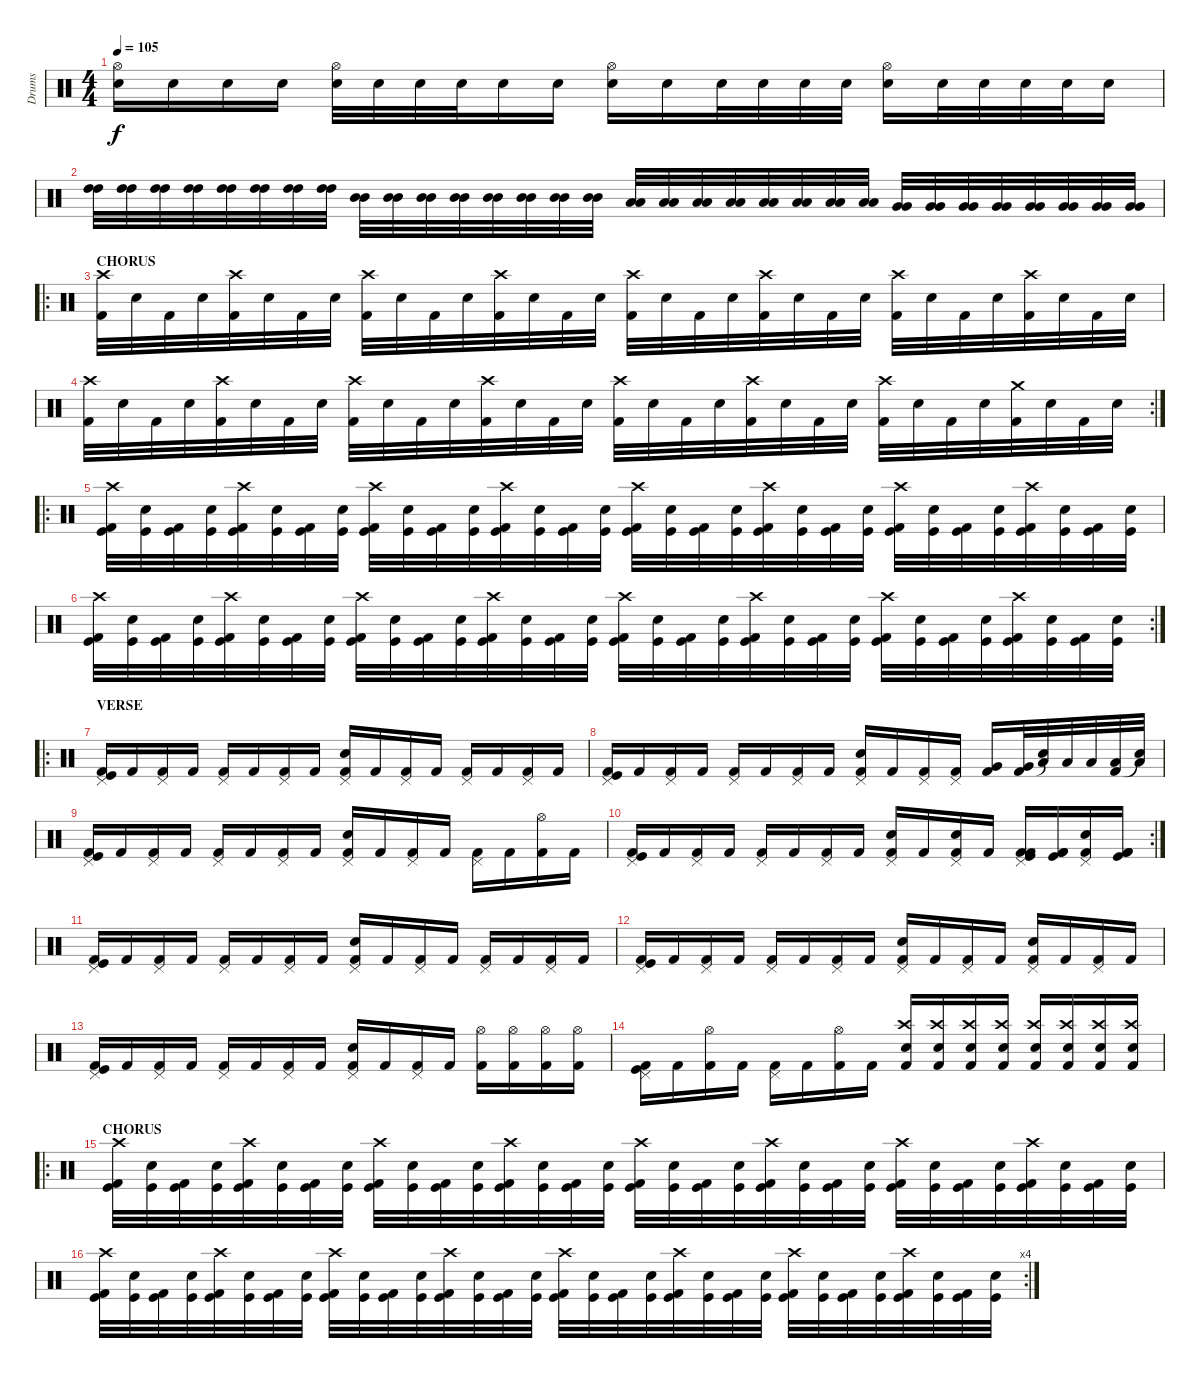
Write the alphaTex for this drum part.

\track ("Drums" "Drums") {instrument percussion}
\staff {score}
\articulation defaults
\ts (4 4)
\tempo 105
\clef neutral
\ks c
("Hi-Hat (open)" "Electric Snare (hit)").16{dy f} "Electric Snare (hit)".16 "Electric Snare (hit)".16 "Electric Snare (hit)".16 ("Hi-Hat (open)" "Electric Snare (hit)").32 "Electric Snare (hit)".32 "Electric Snare (hit)".32 "Electric Snare (hit)".32 "Electric Snare (hit)".16 "Electric Snare (hit)".16 ("Hi-Hat (open)" "Electric Snare (hit)").16 "Electric Snare (hit)".16 "Electric Snare (hit)".32 "Electric Snare (hit)".32 "Electric Snare (hit)".32 "Electric Snare (hit)".32 ("Hi-Hat (open)" "Electric Snare (hit)").16 "Electric Snare (hit)".32 "Electric Snare (hit)".32 "Electric Snare (hit)".32 "Electric Snare (hit)".32 "Electric Snare (hit)".16 |
("High Tom (hit)" "High Tom (hit)").32 ("High Tom (hit)" "High Tom (hit)").32 ("High Tom (hit)" "High Tom (hit)").32 ("High Tom (hit)" "High Tom (hit)").32 ("High Tom (hit)" "High Tom (hit)").32 ("High Tom (hit)" "High Tom (hit)").32 ("High Tom (hit)" "High Tom (hit)").32 ("High Tom (hit)" "High Tom (hit)").32 ("Mid Tom (hit)" "Mid Tom (hit)").32 ("Mid Tom (hit)" "Mid Tom (hit)").32 ("Mid Tom (hit)" "Mid Tom (hit)").32 ("Mid Tom (hit)" "Mid Tom (hit)").32 ("Mid Tom (hit)" "Mid Tom (hit)").32 ("Mid Tom (hit)" "Mid Tom (hit)").32 ("Mid Tom (hit)" "Mid Tom (hit)").32 ("Mid Tom (hit)" "Mid Tom (hit)").32 ("Low Tom (hit)" "Low Tom (hit)").32 ("Low Tom (hit)" "Low Tom (hit)").32 ("Low Tom (hit)" "Low Tom (hit)").32 ("Low Tom (hit)" "Low Tom (hit)").32 ("Low Tom (hit)" "Low Tom (hit)").32 ("Low Tom (hit)" "Low Tom (hit)").32 ("Low Tom (hit)" "Low Tom (hit)").32 ("Low Tom (hit)" "Low Tom (hit)").32 ("Very Low Tom (hit)" "Very Low Tom (hit)").32 ("Very Low Tom (hit)" "Very Low Tom (hit)").32 ("Very Low Tom (hit)" "Very Low Tom (hit)").32 ("Very Low Tom (hit)" "Very Low Tom (hit)").32 ("Very Low Tom (hit)" "Very Low Tom (hit)").32 ("Very Low Tom (hit)" "Very Low Tom (hit)").32 ("Very Low Tom (hit)" "Very Low Tom (hit)").32 ("Very Low Tom (hit)" "Very Low Tom (hit)").32 |
\ro
\section ("" "CHORUS")
("Crash high (hit)" "Kick (hit) 2").32 "Electric Snare (hit)".32 "Kick (hit) 2".32 "Electric Snare (hit)".32 ("Crash high (hit)" "Kick (hit) 2").32 "Electric Snare (hit)".32 "Kick (hit) 2".32 "Electric Snare (hit)".32 ("Crash high (hit)" "Kick (hit) 2").32 "Electric Snare (hit)".32 "Kick (hit) 2".32 "Electric Snare (hit)".32 ("Crash high (hit)" "Kick (hit) 2").32 "Electric Snare (hit)".32 "Kick (hit) 2".32 "Electric Snare (hit)".32 ("Crash high (hit)" "Kick (hit) 2").32 "Electric Snare (hit)".32 "Kick (hit) 2".32 "Electric Snare (hit)".32 ("Crash high (hit)" "Kick (hit) 2").32 "Electric Snare (hit)".32 "Kick (hit) 2".32 "Electric Snare (hit)".32 ("Crash high (hit)" "Kick (hit) 2").32 "Electric Snare (hit)".32 "Kick (hit) 2".32 "Electric Snare (hit)".32 ("Crash high (hit)" "Kick (hit) 2").32 "Electric Snare (hit)".32 "Kick (hit) 2".32 "Electric Snare (hit)".32 |
\rc 2
("Crash high (hit)" "Kick (hit) 2").32 "Electric Snare (hit)".32 "Kick (hit) 2".32 "Electric Snare (hit)".32 ("Crash high (hit)" "Kick (hit) 2").32 "Electric Snare (hit)".32 "Kick (hit) 2".32 "Electric Snare (hit)".32 ("Crash high (hit)" "Kick (hit) 2").32 "Electric Snare (hit)".32 "Kick (hit) 2".32 "Electric Snare (hit)".32 ("Crash high (hit)" "Kick (hit) 2").32 "Electric Snare (hit)".32 "Kick (hit) 2".32 "Electric Snare (hit)".32 ("Crash high (hit)" "Kick (hit) 2").32 "Electric Snare (hit)".32 "Kick (hit) 2".32 "Electric Snare (hit)".32 ("Crash high (hit)" "Kick (hit) 2").32 "Electric Snare (hit)".32 "Kick (hit) 2".32 "Electric Snare (hit)".32 ("Crash high (hit)" "Kick (hit) 2").32 "Electric Snare (hit)".32 "Kick (hit) 2".32 "Electric Snare (hit)".32 ("Crash medium (hit)" "Kick (hit) 2").32 "Electric Snare (hit)".32 "Kick (hit) 2".32 "Electric Snare (hit)".32 |
\ro
("Crash high (hit)" "Kick (hit)" "Kick (hit) 2").32 ("Kick (hit)" "Electric Snare (hit)").32 ("Kick (hit)" "Kick (hit) 2").32 ("Kick (hit)" "Electric Snare (hit)").32 ("Crash high (hit)" "Kick (hit)" "Kick (hit) 2").32 ("Kick (hit)" "Electric Snare (hit)").32 ("Kick (hit)" "Kick (hit) 2").32 ("Kick (hit)" "Electric Snare (hit)").32 ("Crash high (hit)" "Kick (hit)" "Kick (hit) 2").32 ("Kick (hit)" "Electric Snare (hit)").32 ("Kick (hit)" "Kick (hit) 2").32 ("Kick (hit)" "Electric Snare (hit)").32 ("Crash high (hit)" "Kick (hit)" "Kick (hit) 2").32 ("Kick (hit)" "Electric Snare (hit)").32 ("Kick (hit)" "Kick (hit) 2").32 ("Kick (hit)" "Electric Snare (hit)").32 ("Crash high (hit)" "Kick (hit)" "Kick (hit) 2").32 ("Kick (hit)" "Electric Snare (hit)").32 ("Kick (hit)" "Kick (hit) 2").32 ("Kick (hit)" "Electric Snare (hit)").32 ("Crash high (hit)" "Kick (hit)" "Kick (hit) 2").32 ("Kick (hit)" "Electric Snare (hit)").32 ("Kick (hit)" "Kick (hit) 2").32 ("Kick (hit)" "Electric Snare (hit)").32 ("Crash high (hit)" "Kick (hit)" "Kick (hit) 2").32 ("Kick (hit)" "Electric Snare (hit)").32 ("Kick (hit)" "Kick (hit) 2").32 ("Kick (hit)" "Electric Snare (hit)").32 ("Crash high (hit)" "Kick (hit)" "Kick (hit) 2").32 ("Kick (hit)" "Electric Snare (hit)").32 ("Kick (hit)" "Kick (hit) 2").32 ("Kick (hit)" "Electric Snare (hit)").32 |
\rc 2
("Crash high (hit)" "Kick (hit)" "Kick (hit) 2").32 ("Kick (hit)" "Electric Snare (hit)").32 ("Kick (hit)" "Kick (hit) 2").32 ("Kick (hit)" "Electric Snare (hit)").32 ("Crash high (hit)" "Kick (hit)" "Kick (hit) 2").32 ("Kick (hit)" "Electric Snare (hit)").32 ("Kick (hit)" "Kick (hit) 2").32 ("Kick (hit)" "Electric Snare (hit)").32 ("Crash high (hit)" "Kick (hit)" "Kick (hit) 2").32 ("Kick (hit)" "Electric Snare (hit)").32 ("Kick (hit)" "Kick (hit) 2").32 ("Kick (hit)" "Electric Snare (hit)").32 ("Crash high (hit)" "Kick (hit)" "Kick (hit) 2").32 ("Kick (hit)" "Electric Snare (hit)").32 ("Kick (hit)" "Kick (hit) 2").32 ("Kick (hit)" "Electric Snare (hit)").32 ("Crash high (hit)" "Kick (hit)" "Kick (hit) 2").32 ("Kick (hit)" "Electric Snare (hit)").32 ("Kick (hit)" "Kick (hit) 2").32 ("Kick (hit)" "Electric Snare (hit)").32 ("Crash high (hit)" "Kick (hit)" "Kick (hit) 2").32 ("Kick (hit)" "Electric Snare (hit)").32 ("Kick (hit)" "Kick (hit) 2").32 ("Kick (hit)" "Electric Snare (hit)").32 ("Crash high (hit)" "Kick (hit)" "Kick (hit) 2").32 ("Kick (hit)" "Electric Snare (hit)").32 ("Kick (hit)" "Kick (hit) 2").32 ("Kick (hit)" "Electric Snare (hit)").32 ("Crash high (hit)" "Kick (hit)" "Kick (hit) 2").32 ("Kick (hit)" "Electric Snare (hit)").32 ("Kick (hit)" "Kick (hit) 2").32 ("Kick (hit)" "Electric Snare (hit)").32 |
\ro
\section ("" "VERSE")
("Pedal Hi-Hat (hit)" "Kick (hit)" "Kick (hit) 2").16 "Kick (hit) 2".16 ("Pedal Hi-Hat (hit)" "Kick (hit) 2").16 "Kick (hit) 2".16 ("Pedal Hi-Hat (hit)" "Kick (hit) 2").16 "Kick (hit) 2".16 ("Pedal Hi-Hat (hit)" "Kick (hit) 2").16 "Kick (hit) 2".16 ("Pedal Hi-Hat (hit)" "Electric Snare (hit)" "Kick (hit) 2").16 "Kick (hit) 2".16 ("Pedal Hi-Hat (hit)" "Kick (hit) 2").16 "Kick (hit) 2".16 ("Pedal Hi-Hat (hit)" "Kick (hit) 2").16 "Kick (hit) 2".16 ("Pedal Hi-Hat (hit)" "Kick (hit) 2").16 "Kick (hit) 2".16 |
("Pedal Hi-Hat (hit)" "Kick (hit)" "Kick (hit) 2").16 "Kick (hit) 2".16 ("Pedal Hi-Hat (hit)" "Kick (hit) 2").16 "Kick (hit) 2".16 ("Pedal Hi-Hat (hit)" "Kick (hit) 2").16 "Kick (hit) 2".16 ("Pedal Hi-Hat (hit)" "Kick (hit) 2").16 "Kick (hit) 2".16 ("Pedal Hi-Hat (hit)" "Electric Snare (hit)" "Kick (hit) 2").16 "Kick (hit) 2".16 ("Pedal Hi-Hat (hit)" "Kick (hit) 2").16 ("Pedal Hi-Hat (hit)" "Kick (hit) 2").16 ("Kick (hit) 2" "Very Low Tom (hit)").16 ("Kick (hit) 2" "Very Low Tom (hit)").32 ("Snare (hit)"{t} "Low Floor Tom (hit)").32 "Low Floor Tom (hit)".32 "Low Floor Tom (hit)".32 ("Kick (hit) 2" "Low Floor Tom (hit)").32 ("Snare (hit)"{t} "Low Floor Tom (hit)").32 |
("Pedal Hi-Hat (hit)" "Kick (hit)" "Kick (hit) 2").16 "Kick (hit) 2".16 ("Pedal Hi-Hat (hit)" "Kick (hit) 2").16 "Kick (hit) 2".16 ("Pedal Hi-Hat (hit)" "Kick (hit) 2").16 "Kick (hit) 2".16 ("Pedal Hi-Hat (hit)" "Kick (hit) 2").16 "Kick (hit) 2".16 ("Pedal Hi-Hat (hit)" "Electric Snare (hit)" "Kick (hit) 2").16 "Kick (hit) 2".16 ("Pedal Hi-Hat (hit)" "Kick (hit) 2").16 "Kick (hit) 2".16 ("Pedal Hi-Hat (hit)" "Kick (hit) 2").16 "Kick (hit) 2".16 ("Hi-Hat (open)" "Kick (hit) 2").16 "Kick (hit) 2".16 |
\rc 2
("Pedal Hi-Hat (hit)" "Kick (hit)" "Kick (hit) 2").16 "Kick (hit) 2".16 ("Pedal Hi-Hat (hit)" "Kick (hit) 2").16 "Kick (hit) 2".16 ("Pedal Hi-Hat (hit)" "Kick (hit) 2").16 "Kick (hit) 2".16 ("Pedal Hi-Hat (hit)" "Kick (hit) 2").16 "Kick (hit) 2".16 ("Pedal Hi-Hat (hit)" "Electric Snare (hit)" "Kick (hit) 2").16 "Kick (hit) 2".16 ("Pedal Hi-Hat (hit)" "Electric Snare (hit)" "Kick (hit) 2").16 "Kick (hit) 2".16 ("Pedal Hi-Hat (hit)" "Kick (hit) 2" "Kick (hit)" "Kick (hit) 2").16 ("Kick (hit) 2" "Kick (hit)" "Kick (hit) 2").16 ("Pedal Hi-Hat (hit)" "Electric Snare (hit)" "Kick (hit) 2").16 ("Kick (hit) 2" "Kick (hit)" "Kick (hit) 2").16 |
("Pedal Hi-Hat (hit)" "Kick (hit)" "Kick (hit) 2").16 "Kick (hit) 2".16 ("Pedal Hi-Hat (hit)" "Kick (hit) 2").16 "Kick (hit) 2".16 ("Pedal Hi-Hat (hit)" "Kick (hit) 2").16 "Kick (hit) 2".16 ("Pedal Hi-Hat (hit)" "Kick (hit) 2").16 "Kick (hit) 2".16 ("Pedal Hi-Hat (hit)" "Electric Snare (hit)" "Kick (hit) 2").16 "Kick (hit) 2".16 ("Pedal Hi-Hat (hit)" "Kick (hit) 2").16 "Kick (hit) 2".16 ("Pedal Hi-Hat (hit)" "Kick (hit) 2").16 "Kick (hit) 2".16 ("Pedal Hi-Hat (hit)" "Kick (hit) 2").16 "Kick (hit) 2".16 |
("Pedal Hi-Hat (hit)" "Kick (hit)" "Kick (hit) 2").16 "Kick (hit) 2".16 ("Pedal Hi-Hat (hit)" "Kick (hit) 2").16 "Kick (hit) 2".16 ("Pedal Hi-Hat (hit)" "Kick (hit) 2").16 "Kick (hit) 2".16 ("Pedal Hi-Hat (hit)" "Kick (hit) 2").16 "Kick (hit) 2".16 ("Pedal Hi-Hat (hit)" "Electric Snare (hit)" "Kick (hit) 2").16 "Kick (hit) 2".16 ("Pedal Hi-Hat (hit)" "Kick (hit) 2").16 "Kick (hit) 2".16 ("Pedal Hi-Hat (hit)" "Electric Snare (hit)" "Kick (hit) 2").16 "Kick (hit) 2".16 ("Pedal Hi-Hat (hit)" "Kick (hit) 2").16 "Kick (hit) 2".16 |
("Pedal Hi-Hat (hit)" "Kick (hit)" "Kick (hit) 2").16 "Kick (hit) 2".16 ("Pedal Hi-Hat (hit)" "Kick (hit) 2").16 "Kick (hit) 2".16 ("Pedal Hi-Hat (hit)" "Kick (hit) 2").16 "Kick (hit) 2".16 ("Pedal Hi-Hat (hit)" "Kick (hit) 2").16 "Kick (hit) 2".16 ("Pedal Hi-Hat (hit)" "Electric Snare (hit)" "Kick (hit) 2").16 "Kick (hit) 2".16 ("Pedal Hi-Hat (hit)" "Kick (hit) 2").16 "Kick (hit) 2".16 ("Hi-Hat (open)" "Kick (hit) 2").16 ("Hi-Hat (open)" "Kick (hit) 2").16 ("Hi-Hat (open)" "Kick (hit) 2").16 ("Hi-Hat (open)" "Kick (hit) 2").16 |
("Pedal Hi-Hat (hit)" "Kick (hit)" "Kick (hit) 2").16 "Kick (hit) 2".16 ("Hi-Hat (open)" "Kick (hit) 2").16 "Kick (hit) 2".16 ("Pedal Hi-Hat (hit)" "Kick (hit) 2").16 "Kick (hit) 2".16 ("Hi-Hat (open)" "Kick (hit) 2").16 "Kick (hit) 2".16 ("Crash high (hit)" "Electric Snare (hit)" "Kick (hit) 2").16 ("Crash high (hit)" "Electric Snare (hit)" "Kick (hit) 2").16 ("Crash high (hit)" "Electric Snare (hit)" "Kick (hit) 2").16 ("Crash high (hit)" "Electric Snare (hit)" "Kick (hit) 2").16 ("Crash high (hit)" "Electric Snare (hit)" "Kick (hit) 2").16 ("Crash high (hit)" "Electric Snare (hit)" "Kick (hit) 2").16 ("Crash high (hit)" "Electric Snare (hit)" "Kick (hit) 2").16 ("Crash high (hit)" "Electric Snare (hit)" "Kick (hit) 2").16 |
\ro
\section ("" "CHORUS")
("Crash high (hit)" "Kick (hit)" "Kick (hit) 2").32 ("Kick (hit)" "Electric Snare (hit)").32 ("Kick (hit)" "Kick (hit) 2").32 ("Kick (hit)" "Electric Snare (hit)").32 ("Crash high (hit)" "Kick (hit)" "Kick (hit) 2").32 ("Kick (hit)" "Electric Snare (hit)").32 ("Kick (hit)" "Kick (hit) 2").32 ("Kick (hit)" "Electric Snare (hit)").32 ("Crash high (hit)" "Kick (hit)" "Kick (hit) 2").32 ("Kick (hit)" "Electric Snare (hit)").32 ("Kick (hit)" "Kick (hit) 2").32 ("Kick (hit)" "Electric Snare (hit)").32 ("Crash high (hit)" "Kick (hit)" "Kick (hit) 2").32 ("Kick (hit)" "Electric Snare (hit)").32 ("Kick (hit)" "Kick (hit) 2").32 ("Kick (hit)" "Electric Snare (hit)").32 ("Crash high (hit)" "Kick (hit)" "Kick (hit) 2").32 ("Kick (hit)" "Electric Snare (hit)").32 ("Kick (hit)" "Kick (hit) 2").32 ("Kick (hit)" "Electric Snare (hit)").32 ("Crash high (hit)" "Kick (hit)" "Kick (hit) 2").32 ("Kick (hit)" "Electric Snare (hit)").32 ("Kick (hit)" "Kick (hit) 2").32 ("Kick (hit)" "Electric Snare (hit)").32 ("Crash high (hit)" "Kick (hit)" "Kick (hit) 2").32 ("Kick (hit)" "Electric Snare (hit)").32 ("Kick (hit)" "Kick (hit) 2").32 ("Kick (hit)" "Electric Snare (hit)").32 ("Crash high (hit)" "Kick (hit)" "Kick (hit) 2").32 ("Kick (hit)" "Electric Snare (hit)").32 ("Kick (hit)" "Kick (hit) 2").32 ("Kick (hit)" "Electric Snare (hit)").32 |
\rc 4
("Crash high (hit)" "Kick (hit)" "Kick (hit) 2").32 ("Kick (hit)" "Electric Snare (hit)").32 ("Kick (hit)" "Kick (hit) 2").32 ("Kick (hit)" "Electric Snare (hit)").32 ("Crash high (hit)" "Kick (hit)" "Kick (hit) 2").32 ("Kick (hit)" "Electric Snare (hit)").32 ("Kick (hit)" "Kick (hit) 2").32 ("Kick (hit)" "Electric Snare (hit)").32 ("Crash high (hit)" "Kick (hit)" "Kick (hit) 2").32 ("Kick (hit)" "Electric Snare (hit)").32 ("Kick (hit)" "Kick (hit) 2").32 ("Kick (hit)" "Electric Snare (hit)").32 ("Crash high (hit)" "Kick (hit)" "Kick (hit) 2").32 ("Kick (hit)" "Electric Snare (hit)").32 ("Kick (hit)" "Kick (hit) 2").32 ("Kick (hit)" "Electric Snare (hit)").32 ("Crash high (hit)" "Kick (hit)" "Kick (hit) 2").32 ("Kick (hit)" "Electric Snare (hit)").32 ("Kick (hit)" "Kick (hit) 2").32 ("Kick (hit)" "Electric Snare (hit)").32 ("Crash high (hit)" "Kick (hit)" "Kick (hit) 2").32 ("Kick (hit)" "Electric Snare (hit)").32 ("Kick (hit)" "Kick (hit) 2").32 ("Kick (hit)" "Electric Snare (hit)").32 ("Crash high (hit)" "Kick (hit)" "Kick (hit) 2").32 ("Kick (hit)" "Electric Snare (hit)").32 ("Kick (hit)" "Kick (hit) 2").32 ("Kick (hit)" "Electric Snare (hit)").32 ("Crash high (hit)" "Kick (hit)" "Kick (hit) 2").32 ("Kick (hit)" "Electric Snare (hit)").32 ("Kick (hit)" "Kick (hit) 2").32 ("Kick (hit)" "Electric Snare (hit)").32
